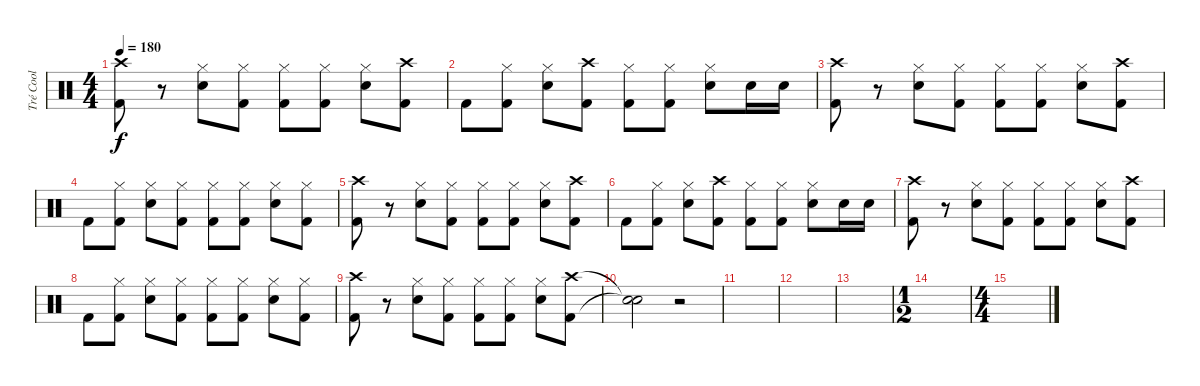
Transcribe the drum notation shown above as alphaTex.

\track ("Tré Cool" "Tré Cool") {instrument percussion}
\staff {score}
\articulation defaults
\ts (4 4)
\tempo 180
\clef neutral
\ks c
("Crash high (hit)" "Kick (hit) 2").8{dy f} r.8 ("Hi-Hat (closed)" "Snare (hit) 2").8 ("Hi-Hat (closed)" "Kick (hit) 2").8 ("Hi-Hat (closed)" "Kick (hit) 2").8 ("Hi-Hat (closed)" "Kick (hit) 2").8 ("Hi-Hat (closed)" "Snare (hit) 2").8 ("Crash high (hit)" "Kick (hit) 2").8 |
"Kick (hit) 2".8 ("Hi-Hat (closed)" "Kick (hit) 2").8 ("Hi-Hat (closed)" "Snare (hit) 2").8 ("Crash high (hit)" "Kick (hit) 2").8 ("Hi-Hat (closed)" "Kick (hit) 2").8 ("Hi-Hat (closed)" "Kick (hit) 2").8 ("Hi-Hat (closed)" "Snare (hit) 2").8 "Electric Snare (hit)".16 "Electric Snare (hit)".16 |
("Crash high (hit)" "Kick (hit) 2").8 r.8 ("Hi-Hat (closed)" "Snare (hit) 2").8 ("Hi-Hat (closed)" "Kick (hit) 2").8 ("Hi-Hat (closed)" "Kick (hit) 2").8 ("Hi-Hat (closed)" "Kick (hit) 2").8 ("Hi-Hat (closed)" "Snare (hit) 2").8 ("Crash high (hit)" "Kick (hit) 2").8 |
"Kick (hit) 2".8 ("Hi-Hat (closed)" "Kick (hit) 2").8 ("Hi-Hat (closed)" "Snare (hit) 2").8 ("Hi-Hat (closed)" "Kick (hit) 2").8 ("Hi-Hat (closed)" "Kick (hit) 2").8 ("Hi-Hat (closed)" "Kick (hit) 2").8 ("Hi-Hat (closed)" "Snare (hit) 2").8 ("Hi-Hat (closed)" "Kick (hit) 2").8 |
("Crash high (hit)" "Kick (hit) 2").8 r.8 ("Hi-Hat (closed)" "Snare (hit) 2").8 ("Hi-Hat (closed)" "Kick (hit) 2").8 ("Hi-Hat (closed)" "Kick (hit) 2").8 ("Hi-Hat (closed)" "Kick (hit) 2").8 ("Hi-Hat (closed)" "Snare (hit) 2").8 ("Crash high (hit)" "Kick (hit) 2").8 |
"Kick (hit) 2".8 ("Hi-Hat (closed)" "Kick (hit) 2").8 ("Hi-Hat (closed)" "Snare (hit) 2").8 ("Crash high (hit)" "Kick (hit) 2").8 ("Hi-Hat (closed)" "Kick (hit) 2").8 ("Hi-Hat (closed)" "Kick (hit) 2").8 ("Hi-Hat (closed)" "Snare (hit) 2").8 "Electric Snare (hit)".16 "Electric Snare (hit)".16 |
("Crash high (hit)" "Kick (hit) 2").8 r.8 ("Hi-Hat (closed)" "Snare (hit) 2").8 ("Hi-Hat (closed)" "Kick (hit) 2").8 ("Hi-Hat (closed)" "Kick (hit) 2").8 ("Hi-Hat (closed)" "Kick (hit) 2").8 ("Hi-Hat (closed)" "Snare (hit) 2").8 ("Crash high (hit)" "Kick (hit) 2").8 |
"Kick (hit) 2".8 ("Hi-Hat (closed)" "Kick (hit) 2").8 ("Hi-Hat (closed)" "Snare (hit) 2").8 ("Hi-Hat (closed)" "Kick (hit) 2").8 ("Hi-Hat (closed)" "Kick (hit) 2").8 ("Hi-Hat (closed)" "Kick (hit) 2").8 ("Hi-Hat (closed)" "Snare (hit) 2").8 ("Hi-Hat (closed)" "Kick (hit) 2").8 |
("Crash high (hit)" "Kick (hit) 2").8 r.8 ("Hi-Hat (closed)" "Snare (hit) 2").8 ("Hi-Hat (closed)" "Kick (hit) 2").8 ("Hi-Hat (closed)" "Kick (hit) 2").8 ("Hi-Hat (closed)" "Kick (hit) 2").8 ("Hi-Hat (closed)" "Snare (hit) 2").8 ("Crash high (hit)" "Kick (hit) 2").8 |
("Snare (hit)"{t} "Snare (hit)"{t}).2 r.2 |
|
|
|
\ts (1 2)
|
\ts (4 4)
